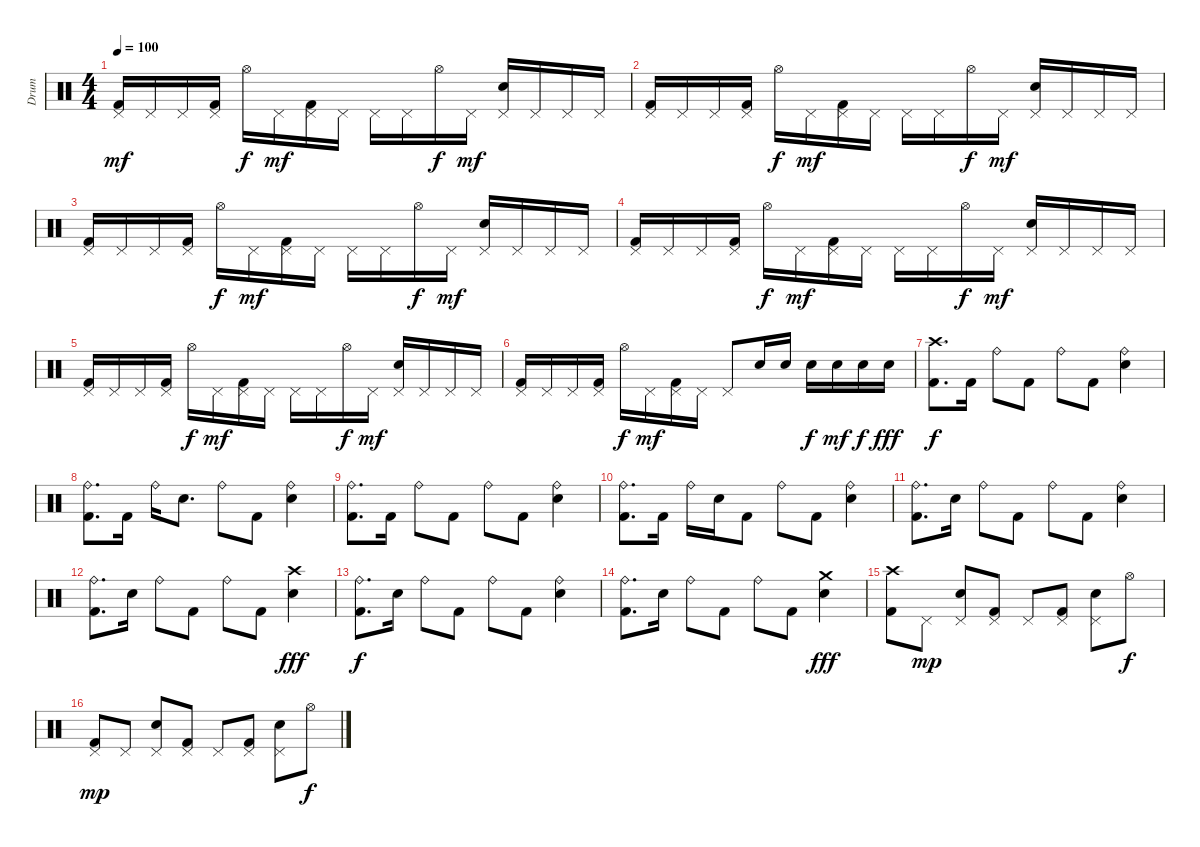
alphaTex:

\track ("Drum" "Drum") {instrument percussion}
\staff {score}
\articulation defaults
\ts (4 4)
\tempo 100
\clef neutral
\ks c
("Pedal Hi-Hat (hit)" "Kick (hit) 2").16{dy mf} "Pedal Hi-Hat (hit)".16 "Pedal Hi-Hat (hit)".16 ("Pedal Hi-Hat (hit)" "Kick (hit) 2").16 "Hi-Hat (open)".16{dy f} "Pedal Hi-Hat (hit)".16{dy mf} ("Pedal Hi-Hat (hit)" "Kick (hit) 2").16 "Pedal Hi-Hat (hit)".16 "Pedal Hi-Hat (hit)".16 "Pedal Hi-Hat (hit)".16 "Hi-Hat (open)".16{dy f} "Pedal Hi-Hat (hit)".16{dy mf} ("Pedal Hi-Hat (hit)" "Electric Snare (hit)").16 "Pedal Hi-Hat (hit)".16 "Pedal Hi-Hat (hit)".16 "Pedal Hi-Hat (hit)".16 |
("Pedal Hi-Hat (hit)" "Kick (hit) 2").16 "Pedal Hi-Hat (hit)".16 "Pedal Hi-Hat (hit)".16 ("Pedal Hi-Hat (hit)" "Kick (hit) 2").16 "Hi-Hat (open)".16{dy f} "Pedal Hi-Hat (hit)".16{dy mf} ("Pedal Hi-Hat (hit)" "Kick (hit) 2").16 "Pedal Hi-Hat (hit)".16 "Pedal Hi-Hat (hit)".16 "Pedal Hi-Hat (hit)".16 "Hi-Hat (open)".16{dy f} "Pedal Hi-Hat (hit)".16{dy mf} ("Pedal Hi-Hat (hit)" "Electric Snare (hit)").16 "Pedal Hi-Hat (hit)".16 "Pedal Hi-Hat (hit)".16 "Pedal Hi-Hat (hit)".16 |
("Pedal Hi-Hat (hit)" "Kick (hit) 2").16 "Pedal Hi-Hat (hit)".16 "Pedal Hi-Hat (hit)".16 ("Pedal Hi-Hat (hit)" "Kick (hit) 2").16 "Hi-Hat (open)".16{dy f} "Pedal Hi-Hat (hit)".16{dy mf} ("Pedal Hi-Hat (hit)" "Kick (hit) 2").16 "Pedal Hi-Hat (hit)".16 "Pedal Hi-Hat (hit)".16 "Pedal Hi-Hat (hit)".16 "Hi-Hat (open)".16{dy f} "Pedal Hi-Hat (hit)".16{dy mf} ("Pedal Hi-Hat (hit)" "Electric Snare (hit)").16 "Pedal Hi-Hat (hit)".16 "Pedal Hi-Hat (hit)".16 "Pedal Hi-Hat (hit)".16 |
("Pedal Hi-Hat (hit)" "Kick (hit) 2").16 "Pedal Hi-Hat (hit)".16 "Pedal Hi-Hat (hit)".16 ("Pedal Hi-Hat (hit)" "Kick (hit) 2").16 "Hi-Hat (open)".16{dy f} "Pedal Hi-Hat (hit)".16{dy mf} ("Pedal Hi-Hat (hit)" "Kick (hit) 2").16 "Pedal Hi-Hat (hit)".16 "Pedal Hi-Hat (hit)".16 "Pedal Hi-Hat (hit)".16 "Hi-Hat (open)".16{dy f} "Pedal Hi-Hat (hit)".16{dy mf} ("Pedal Hi-Hat (hit)" "Electric Snare (hit)").16 "Pedal Hi-Hat (hit)".16 "Pedal Hi-Hat (hit)".16 "Pedal Hi-Hat (hit)".16 |
("Pedal Hi-Hat (hit)" "Kick (hit) 2").16 "Pedal Hi-Hat (hit)".16 "Pedal Hi-Hat (hit)".16 ("Pedal Hi-Hat (hit)" "Kick (hit) 2").16 "Hi-Hat (open)".16{dy f} "Pedal Hi-Hat (hit)".16{dy mf} ("Pedal Hi-Hat (hit)" "Kick (hit) 2").16 "Pedal Hi-Hat (hit)".16 "Pedal Hi-Hat (hit)".16 "Pedal Hi-Hat (hit)".16 "Hi-Hat (open)".16{dy f} "Pedal Hi-Hat (hit)".16{dy mf} ("Pedal Hi-Hat (hit)" "Electric Snare (hit)").16 "Pedal Hi-Hat (hit)".16 "Pedal Hi-Hat (hit)".16 "Pedal Hi-Hat (hit)".16 |
("Pedal Hi-Hat (hit)" "Kick (hit) 2").16 "Pedal Hi-Hat (hit)".16 "Pedal Hi-Hat (hit)".16 ("Pedal Hi-Hat (hit)" "Kick (hit) 2").16 "Hi-Hat (open)".16{dy f} "Pedal Hi-Hat (hit)".16{dy mf} ("Pedal Hi-Hat (hit)" "Kick (hit) 2").16 "Pedal Hi-Hat (hit)".16 "Pedal Hi-Hat (hit)".8 "Electric Snare (hit)".16 "Electric Snare (hit)".16 "Electric Snare (hit)".16{dy f} "Electric Snare (hit)".16{dy mf} "Electric Snare (hit)".16{dy f} "Electric Snare (hit)".16{dy fff} |
("Crash high (hit)" "Kick (hit) 2").8{d dy f} "Kick (hit) 2".16 "Ride (bell)".8 "Kick (hit) 2".8 "Ride (bell)".8 "Kick (hit) 2".8 ("Ride (bell)" "Electric Snare (hit)").4 |
("Ride (bell)" "Kick (hit) 2").8{d} "Kick (hit) 2".16 "Ride (bell)".16 "Electric Snare (hit)".8{d} "Ride (bell)".8 "Kick (hit) 2".8 ("Ride (bell)" "Electric Snare (hit)").4 |
("Ride (bell)" "Kick (hit) 2").8{d} "Kick (hit) 2".16 "Ride (bell)".8 "Kick (hit) 2".8 "Ride (bell)".8 "Kick (hit) 2".8 ("Ride (bell)" "Electric Snare (hit)").4 |
("Ride (bell)" "Kick (hit) 2").8{d} "Kick (hit) 2".16 "Ride (bell)".16 "Electric Snare (hit)".16 "Kick (hit) 2".8 "Ride (bell)".8 "Kick (hit) 2".8 ("Ride (bell)" "Electric Snare (hit)").4 |
("Ride (bell)" "Kick (hit) 2").8{d} "Electric Snare (hit)".16 "Ride (bell)".8 "Kick (hit) 2".8 "Ride (bell)".8 "Kick (hit) 2".8 ("Ride (bell)" "Electric Snare (hit)").4 |
("Ride (bell)" "Kick (hit) 2").8{d} "Electric Snare (hit)".16 "Ride (bell)".8 "Kick (hit) 2".8 "Ride (bell)".8 "Kick (hit) 2".8 ("Crash high (hit)" "Electric Snare (hit)").4{dy fff} |
("Ride (bell)" "Kick (hit) 2").8{d dy f} "Electric Snare (hit)".16 "Ride (bell)".8 "Kick (hit) 2".8 "Ride (bell)".8 "Kick (hit) 2".8 ("Ride (bell)" "Electric Snare (hit)").4 |
("Ride (bell)" "Kick (hit) 2").8{d} "Electric Snare (hit)".16 "Ride (bell)".8 "Kick (hit) 2".8 "Ride (bell)".8 "Kick (hit) 2".8 ("Crash medium (hit)" "Electric Snare (hit)").4{dy fff} |
("Crash high (hit)" "Kick (hit) 2").8 "Pedal Hi-Hat (hit)".8{dy mp} ("Pedal Hi-Hat (hit)" "Electric Snare (hit)").8 ("Pedal Hi-Hat (hit)" "Kick (hit) 2").8 "Pedal Hi-Hat (hit)".8 ("Pedal Hi-Hat (hit)" "Kick (hit) 2").8 ("Pedal Hi-Hat (hit)" "Electric Snare (hit)").8 "Hi-Hat (open)".8{dy f} |
("Pedal Hi-Hat (hit)" "Kick (hit) 2").8{dy mp} "Pedal Hi-Hat (hit)".8 ("Pedal Hi-Hat (hit)" "Electric Snare (hit)").8 ("Pedal Hi-Hat (hit)" "Kick (hit) 2").8 "Pedal Hi-Hat (hit)".8 ("Pedal Hi-Hat (hit)" "Kick (hit) 2").8 ("Pedal Hi-Hat (hit)" "Electric Snare (hit)").8 "Hi-Hat (open)".8{dy f}
